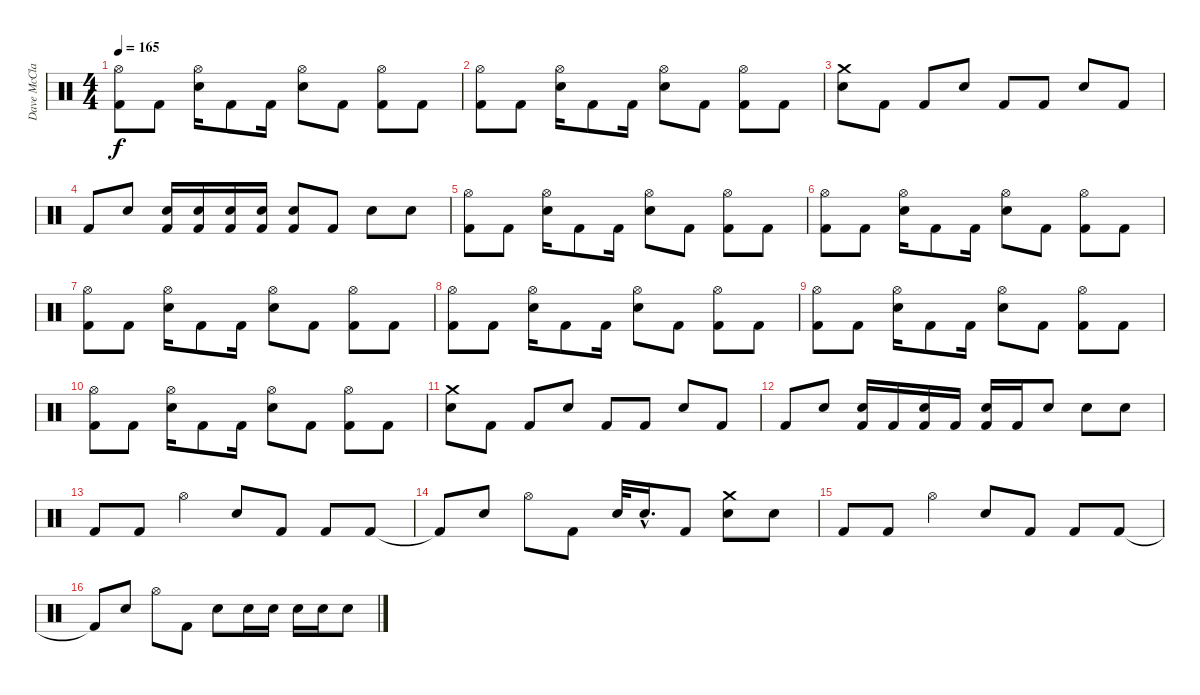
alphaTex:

\track ("Dave McClain" "Dave McCla") {instrument percussion}
\staff {score}
\articulation defaults
\ts (4 4)
\tempo 165
\clef neutral
\ks c
("Hi-Hat (open)" "Kick (hit) 2").8{dy f} "Kick (hit) 2".8 ("Hi-Hat (open)" "Electric Snare (hit)").16 "Kick (hit) 2".8 "Kick (hit) 2".16 ("Hi-Hat (open)" "Electric Snare (hit)").8 "Kick (hit) 2".8 ("Hi-Hat (open)" "Kick (hit) 2").8 "Kick (hit) 2".8 |
("Hi-Hat (open)" "Kick (hit) 2").8 "Kick (hit) 2".8 ("Hi-Hat (open)" "Electric Snare (hit)").16 "Kick (hit) 2".8 "Kick (hit) 2".16 ("Hi-Hat (open)" "Electric Snare (hit)").8 "Kick (hit) 2".8 ("Hi-Hat (open)" "Kick (hit) 2").8 "Kick (hit) 2".8 |
("Crash medium (hit)" "Electric Snare (hit)").8 "Kick (hit) 2".8 "Kick (hit) 2".8 "Electric Snare (hit)".8 "Kick (hit) 2".8 "Kick (hit) 2".8 "Electric Snare (hit)".8 "Kick (hit) 2".8 |
"Kick (hit) 2".8 "Electric Snare (hit)".8 ("Electric Snare (hit)" "Kick (hit) 2").16 ("Electric Snare (hit)" "Kick (hit) 2").16 ("Electric Snare (hit)" "Kick (hit) 2").16 ("Electric Snare (hit)" "Kick (hit) 2").16 ("Electric Snare (hit)" "Kick (hit) 2").8 "Kick (hit) 2".8 "Electric Snare (hit)".8 "Electric Snare (hit)".8 |
("Hi-Hat (open)" "Kick (hit) 2").8 "Kick (hit) 2".8 ("Hi-Hat (open)" "Electric Snare (hit)").16 "Kick (hit) 2".8 "Kick (hit) 2".16 ("Hi-Hat (open)" "Electric Snare (hit)").8 "Kick (hit) 2".8 ("Hi-Hat (open)" "Kick (hit) 2").8 "Kick (hit) 2".8 |
("Hi-Hat (open)" "Kick (hit) 2").8 "Kick (hit) 2".8 ("Hi-Hat (open)" "Electric Snare (hit)").16 "Kick (hit) 2".8 "Kick (hit) 2".16 ("Hi-Hat (open)" "Electric Snare (hit)").8 "Kick (hit) 2".8 ("Hi-Hat (open)" "Kick (hit) 2").8 "Kick (hit) 2".8 |
("Hi-Hat (open)" "Kick (hit) 2").8 "Kick (hit) 2".8 ("Hi-Hat (open)" "Electric Snare (hit)").16 "Kick (hit) 2".8 "Kick (hit) 2".16 ("Hi-Hat (open)" "Electric Snare (hit)").8 "Kick (hit) 2".8 ("Hi-Hat (open)" "Kick (hit) 2").8 "Kick (hit) 2".8 |
("Hi-Hat (open)" "Kick (hit) 2").8 "Kick (hit) 2".8 ("Hi-Hat (open)" "Electric Snare (hit)").16 "Kick (hit) 2".8 "Kick (hit) 2".16 ("Hi-Hat (open)" "Electric Snare (hit)").8 "Kick (hit) 2".8 ("Hi-Hat (open)" "Kick (hit) 2").8 "Kick (hit) 2".8 |
("Hi-Hat (open)" "Kick (hit) 2").8 "Kick (hit) 2".8 ("Hi-Hat (open)" "Electric Snare (hit)").16 "Kick (hit) 2".8 "Kick (hit) 2".16 ("Hi-Hat (open)" "Electric Snare (hit)").8 "Kick (hit) 2".8 ("Hi-Hat (open)" "Kick (hit) 2").8 "Kick (hit) 2".8 |
("Hi-Hat (open)" "Kick (hit) 2").8 "Kick (hit) 2".8 ("Hi-Hat (open)" "Electric Snare (hit)").16 "Kick (hit) 2".8 "Kick (hit) 2".16 ("Hi-Hat (open)" "Electric Snare (hit)").8 "Kick (hit) 2".8 ("Hi-Hat (open)" "Kick (hit) 2").8 "Kick (hit) 2".8 |
("Crash medium (hit)" "Electric Snare (hit)").8 "Kick (hit) 2".8 "Kick (hit) 2".8 "Electric Snare (hit)".8 "Kick (hit) 2".8 "Kick (hit) 2".8 "Electric Snare (hit)".8 "Kick (hit) 2".8 |
"Kick (hit) 2".8 "Electric Snare (hit)".8 ("Electric Snare (hit)" "Kick (hit) 2").16 "Kick (hit) 2".16 ("Electric Snare (hit)" "Kick (hit) 2").16 "Kick (hit) 2".16 ("Electric Snare (hit)" "Kick (hit) 2").16 "Kick (hit) 2".16 "Electric Snare (hit)".8 "Electric Snare (hit)".8 "Electric Snare (hit)".8 |
"Kick (hit) 2".8 "Kick (hit) 2".8 "Hi-Hat (open)".4 "Electric Snare (hit)".8 "Kick (hit) 2".8 "Kick (hit) 2".8 "Kick (hit) 2".8 |
"Kick (hit) 2"{t}.8 "Electric Snare (hit)".8 "Hi-Hat (open)".8 "Kick (hit) 2".8 "Electric Snare (hit)".32 "Electric Snare (hit)"{hac}.16{d} "Kick (hit) 2".8 ("Crash medium (hit)" "Electric Snare (hit)").8 "Electric Snare (hit)".8 |
"Kick (hit) 2".8 "Kick (hit) 2".8 "Hi-Hat (open)".4 "Electric Snare (hit)".8 "Kick (hit) 2".8 "Kick (hit) 2".8 "Kick (hit) 2".8 |
"Kick (hit) 2"{t}.8 "Electric Snare (hit)".8 "Hi-Hat (open)".8 "Kick (hit) 2".8 "Electric Snare (hit)".8 "Electric Snare (hit)".16 "Electric Snare (hit)".16 "Electric Snare (hit)".16 "Electric Snare (hit)".16 "Electric Snare (hit)".8
